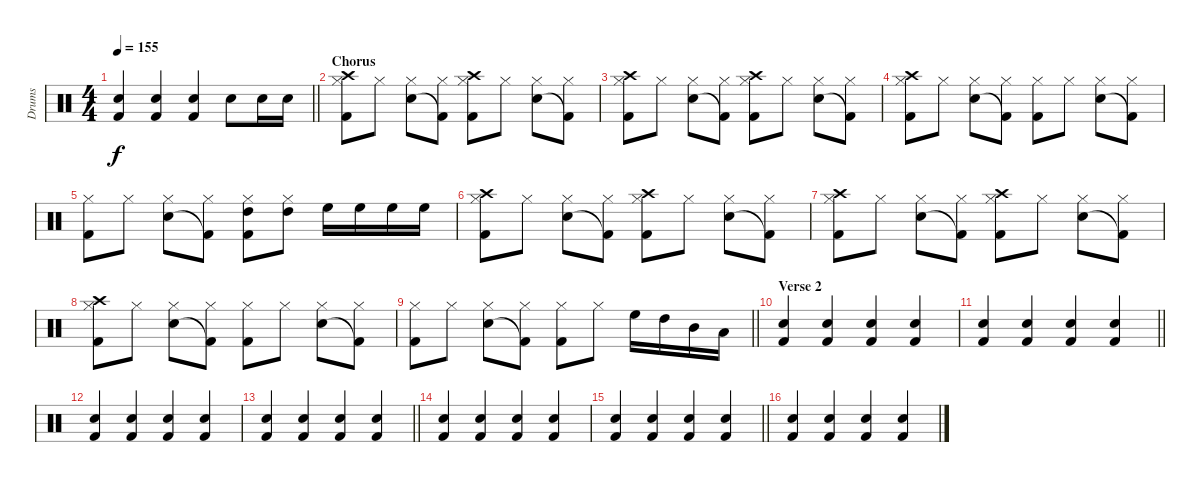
\track ("Drums" "Drums") {instrument percussion}
\staff {score}
\articulation defaults
\ts (4 4)
\tempo 155
\clef neutral
\barLineRight lightlight
\ks c
("Electric Snare (hit)" "Kick (hit) 2").4{dy f} ("Electric Snare (hit)" "Kick (hit) 2").4 ("Electric Snare (hit)" "Kick (hit) 2").4 "Electric Snare (hit)".8 "Snare (hit) 2".16 "Snare (hit) 2".16 |
\section ("" "Chorus")
("Crash high (hit)" "Kick (hit) 2" "Hi-Hat (closed)").8 "Hi-Hat (closed)".8 ("Snare (hit) 2" "Hi-Hat (closed)").8 ("Kick (hit) 2"{t} "Hi-Hat (closed)").8 ("Crash high (hit)" "Kick (hit) 2" "Hi-Hat (closed)").8 "Hi-Hat (closed)".8 ("Snare (hit) 2" "Hi-Hat (closed)").8 ("Kick (hit) 2"{t} "Hi-Hat (closed)").8 |
("Crash high (hit)" "Kick (hit) 2" "Hi-Hat (closed)").8 "Hi-Hat (closed)".8 ("Snare (hit) 2" "Hi-Hat (closed)").8 ("Kick (hit) 2"{t} "Hi-Hat (closed)").8 ("Crash high (hit)" "Kick (hit) 2" "Hi-Hat (closed)").8 "Hi-Hat (closed)".8 ("Snare (hit) 2" "Hi-Hat (closed)").8 ("Kick (hit) 2"{t} "Hi-Hat (closed)").8 |
("Crash high (hit)" "Kick (hit) 2" "Hi-Hat (closed)").8 "Hi-Hat (closed)".8 ("Snare (hit) 2" "Hi-Hat (closed)").8 ("Kick (hit) 2"{t} "Hi-Hat (closed)").8 ("Kick (hit) 2" "Hi-Hat (closed)").8 "Hi-Hat (closed)".8 ("Snare (hit) 2" "Hi-Hat (closed)").8 ("Kick (hit) 2"{t} "Hi-Hat (closed)").8 |
("Kick (hit) 2" "Hi-Hat (closed)").8 "Hi-Hat (closed)".8 ("Snare (hit) 2" "Hi-Hat (closed)").8 ("Kick (hit) 2"{t} "Hi-Hat (closed)").8 ("Kick (hit) 2" "Hi-Hat (closed)" "High Tom (hit)").8 ("Hi-Hat (closed)" "High Tom (hit)").8 "High Floor Tom (hit)".16 "High Floor Tom (hit)".16 "High Floor Tom (hit)".16 "High Floor Tom (hit)".16 |
("Crash high (hit)" "Kick (hit) 2" "Hi-Hat (closed)").8 "Hi-Hat (closed)".8 ("Snare (hit) 2" "Hi-Hat (closed)").8 ("Kick (hit) 2"{t} "Hi-Hat (closed)").8 ("Crash high (hit)" "Kick (hit) 2" "Hi-Hat (closed)").8 "Hi-Hat (closed)".8 ("Snare (hit) 2" "Hi-Hat (closed)").8 ("Kick (hit) 2"{t} "Hi-Hat (closed)").8 |
("Crash high (hit)" "Kick (hit) 2" "Hi-Hat (closed)").8 "Hi-Hat (closed)".8 ("Snare (hit) 2" "Hi-Hat (closed)").8 ("Kick (hit) 2"{t} "Hi-Hat (closed)").8 ("Crash high (hit)" "Kick (hit) 2" "Hi-Hat (closed)").8 "Hi-Hat (closed)".8 ("Snare (hit) 2" "Hi-Hat (closed)").8 ("Kick (hit) 2"{t} "Hi-Hat (closed)").8 |
("Crash high (hit)" "Kick (hit) 2" "Hi-Hat (closed)").8 "Hi-Hat (closed)".8 ("Snare (hit) 2" "Hi-Hat (closed)").8 ("Kick (hit) 2"{t} "Hi-Hat (closed)").8 ("Kick (hit) 2" "Hi-Hat (closed)").8 "Hi-Hat (closed)".8 ("Snare (hit) 2" "Hi-Hat (closed)").8 ("Kick (hit) 2"{t} "Hi-Hat (closed)").8 |
\barLineRight lightlight
("Kick (hit) 2" "Hi-Hat (closed)").8 "Hi-Hat (closed)".8 ("Snare (hit) 2" "Hi-Hat (closed)").8 ("Kick (hit) 2"{t} "Hi-Hat (closed)").8 ("Kick (hit) 2" "Hi-Hat (closed)").8 "Hi-Hat (closed)".8 "High Floor Tom (hit)".16 "High Tom (hit)".16 "Mid Tom (hit)".16 "Low Tom (hit)".16 |
\section ("" "Verse 2")
("Electric Snare (hit)" "Kick (hit) 2").4 ("Electric Snare (hit)" "Kick (hit) 2").4 ("Electric Snare (hit)" "Kick (hit) 2").4 ("Electric Snare (hit)" "Kick (hit) 2").4 |
\barLineRight lightlight
("Electric Snare (hit)" "Kick (hit) 2").4 ("Electric Snare (hit)" "Kick (hit) 2").4 ("Electric Snare (hit)" "Kick (hit) 2").4 ("Electric Snare (hit)" "Kick (hit) 2").4 |
("Electric Snare (hit)" "Kick (hit) 2").4 ("Electric Snare (hit)" "Kick (hit) 2").4 ("Electric Snare (hit)" "Kick (hit) 2").4 ("Electric Snare (hit)" "Kick (hit) 2").4 |
\barLineRight lightlight
("Electric Snare (hit)" "Kick (hit) 2").4 ("Electric Snare (hit)" "Kick (hit) 2").4 ("Electric Snare (hit)" "Kick (hit) 2").4 ("Electric Snare (hit)" "Kick (hit) 2").4 |
("Electric Snare (hit)" "Kick (hit) 2").4 ("Electric Snare (hit)" "Kick (hit) 2").4 ("Electric Snare (hit)" "Kick (hit) 2").4 ("Electric Snare (hit)" "Kick (hit) 2").4 |
\barLineRight lightlight
("Electric Snare (hit)" "Kick (hit) 2").4 ("Electric Snare (hit)" "Kick (hit) 2").4 ("Electric Snare (hit)" "Kick (hit) 2").4 ("Electric Snare (hit)" "Kick (hit) 2").4 |
("Electric Snare (hit)" "Kick (hit) 2").4 ("Electric Snare (hit)" "Kick (hit) 2").4 ("Electric Snare (hit)" "Kick (hit) 2").4 ("Electric Snare (hit)" "Kick (hit) 2").4
